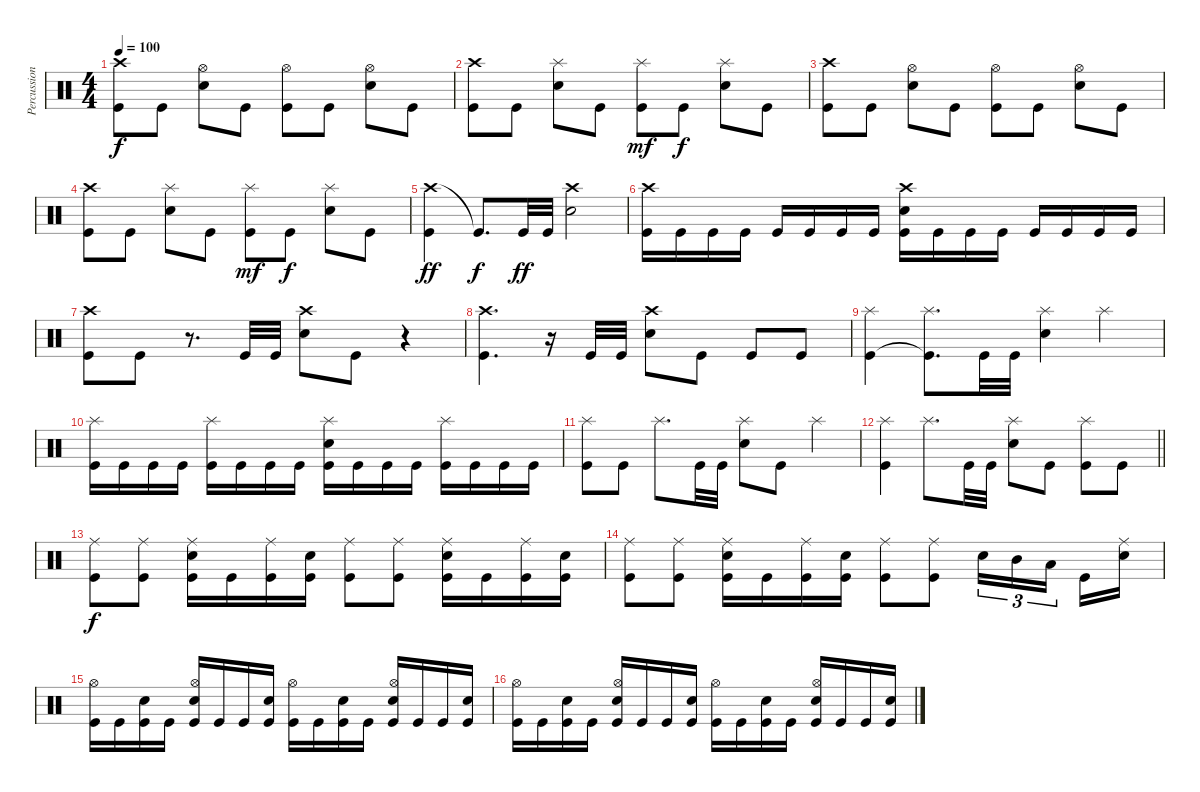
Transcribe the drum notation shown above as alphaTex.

\track ("Percussion" "Percussion") {instrument percussion}
\staff {score}
\articulation defaults
\ts (4 4)
\tempo 100
\clef neutral
\ks c
("Crash high (hit)" "Kick (hit)").8{dy f} "Kick (hit)".8 ("Hi-Hat (open)" "Electric Snare (hit)").8 "Kick (hit)".8 ("Hi-Hat (open)" "Kick (hit)").8 "Kick (hit)".8 ("Hi-Hat (open)" "Electric Snare (hit)").8 "Kick (hit)".8 |
("Crash high (hit)" "Kick (hit)").8 "Kick (hit)".8 ("Splash (hit)" "Electric Snare (hit)").8 "Kick (hit)".8 ("Splash (hit)" "Kick (hit)").8{dy mf} "Kick (hit)".8{dy f} ("Splash (hit)" "Electric Snare (hit)").8 "Kick (hit)".8 |
("Crash high (hit)" "Kick (hit)").8 "Kick (hit)".8 ("Hi-Hat (open)" "Electric Snare (hit)").8 "Kick (hit)".8 ("Hi-Hat (open)" "Kick (hit)").8 "Kick (hit)".8 ("Hi-Hat (open)" "Electric Snare (hit)").8 "Kick (hit)".8 |
("Crash high (hit)" "Kick (hit)").8 "Kick (hit)".8 ("Splash (hit)" "Electric Snare (hit)").8 "Kick (hit)".8 ("Splash (hit)" "Kick (hit)").8{dy mf} "Kick (hit)".8{dy f} ("Splash (hit)" "Electric Snare (hit)").8 "Kick (hit)".8 |
("Crash high (hit)" "Kick (hit)").4{dy ff} "Kick (hit)"{t}.8{d dy f} "Kick (hit)".32{dy ff} "Kick (hit)".32 ("Crash high (hit)" "Electric Snare (hit)").2 |
("Crash high (hit)" "Kick (hit)").16 "Kick (hit)".16 "Kick (hit)".16 "Kick (hit)".16 "Kick (hit)".16 "Kick (hit)".16 "Kick (hit)".16 "Kick (hit)".16 ("Crash high (hit)" "Electric Snare (hit)" "Kick (hit)").16 "Kick (hit)".16 "Kick (hit)".16 "Kick (hit)".16 "Kick (hit)".16 "Kick (hit)".16 "Kick (hit)".16 "Kick (hit)".16 |
("Crash high (hit)" "Kick (hit)").8 "Kick (hit)".8 r.8{d} "Kick (hit)".32 "Kick (hit)".32 ("Crash high (hit)" "Electric Snare (hit)").8 "Kick (hit)".8 r.4 |
("Crash high (hit)" "Kick (hit)").4{d} r.16 "Kick (hit)".32 "Kick (hit)".32 ("Crash high (hit)" "Electric Snare (hit)").8 "Kick (hit)".8 "Kick (hit)".8 "Kick (hit)".8 |
("Splash (hit)" "Kick (hit)").4 ("Splash (hit)" "Kick (hit)"{t}).8{d} "Kick (hit)".32 "Kick (hit)".32 ("Splash (hit)" "Electric Snare (hit)").4 "Splash (hit)".4 |
("Splash (hit)" "Kick (hit)").16 "Kick (hit)".16 "Kick (hit)".16 "Kick (hit)".16 ("Splash (hit)" "Kick (hit)").16 "Kick (hit)".16 "Kick (hit)".16 "Kick (hit)".16 ("Splash (hit)" "Electric Snare (hit)" "Kick (hit)").16 "Kick (hit)".16 "Kick (hit)".16 "Kick (hit)".16 ("Splash (hit)" "Kick (hit)").16 "Kick (hit)".16 "Kick (hit)".16 "Kick (hit)".16 |
("Splash (hit)" "Kick (hit)").8 "Kick (hit)".8 "Splash (hit)".8{d} "Kick (hit)".32 "Kick (hit)".32 ("Splash (hit)" "Electric Snare (hit)").8 "Kick (hit)".8 "Splash (hit)".4 |
\barLineRight lightlight
("Splash (hit)" "Kick (hit)").4 "Splash (hit)".8{d} "Kick (hit)".32 "Kick (hit)".32 ("Splash (hit)" "Electric Snare (hit)").8 "Kick (hit)".8 ("Splash (hit)" "Kick (hit)").8 "Kick (hit)".8 |
("Ride (middle)" "Kick (hit)").8{dy f volume 5} ("Ride (middle)" "Kick (hit)").8 ("Ride (middle)" "Electric Snare (hit)" "Kick (hit)").16 "Kick (hit)".16 ("Ride (middle)" "Kick (hit)").16 ("Electric Snare (hit)" "Kick (hit)").16 ("Ride (middle)" "Kick (hit)").8 ("Ride (middle)" "Kick (hit)").8 ("Ride (middle)" "Electric Snare (hit)" "Kick (hit)").16 "Kick (hit)".16 ("Ride (middle)" "Kick (hit)").16 ("Electric Snare (hit)" "Kick (hit)").16 |
("Ride (middle)" "Kick (hit)").8 ("Ride (middle)" "Kick (hit)").8 ("Ride (middle)" "Electric Snare (hit)" "Kick (hit)").16 "Kick (hit)".16 ("Ride (middle)" "Kick (hit)").16 ("Electric Snare (hit)" "Kick (hit)").16 ("Ride (middle)" "Kick (hit)").8 ("Ride (middle)" "Kick (hit)").8 "Electric Snare (hit)".16{tu (3 2)} "Mid Tom (hit)".16{tu (3 2)} "Low Tom (hit)".16{tu (3 2) beam splitsecondary} "Kick (hit)".16 ("Ride (middle)" "Electric Snare (hit)").16 |
("Hi-Hat (open)" "Kick (hit)").16 "Kick (hit)".16 ("Electric Snare (hit)" "Kick (hit)").16 "Kick (hit)".16 ("Hi-Hat (open)" "Electric Snare (hit)" "Kick (hit)").16 "Kick (hit)".16 "Kick (hit)".16 ("Electric Snare (hit)" "Kick (hit)").16 ("Hi-Hat (open)" "Kick (hit)").16 "Kick (hit)".16 ("Electric Snare (hit)" "Kick (hit)").16 "Kick (hit)".16 ("Hi-Hat (open)" "Electric Snare (hit)" "Kick (hit)").16 "Kick (hit)".16 "Kick (hit)".16 ("Electric Snare (hit)" "Kick (hit)").16 |
("Hi-Hat (open)" "Kick (hit)").16 "Kick (hit)".16 ("Electric Snare (hit)" "Kick (hit)").16 "Kick (hit)".16 ("Hi-Hat (open)" "Electric Snare (hit)" "Kick (hit)").16 "Kick (hit)".16 "Kick (hit)".16 ("Electric Snare (hit)" "Kick (hit)").16 ("Hi-Hat (open)" "Kick (hit)").16 "Kick (hit)".16 ("Electric Snare (hit)" "Kick (hit)").16 "Kick (hit)".16 ("Hi-Hat (open)" "Electric Snare (hit)" "Kick (hit)").16 "Kick (hit)".16 "Kick (hit)".16 ("Electric Snare (hit)" "Kick (hit)").16
